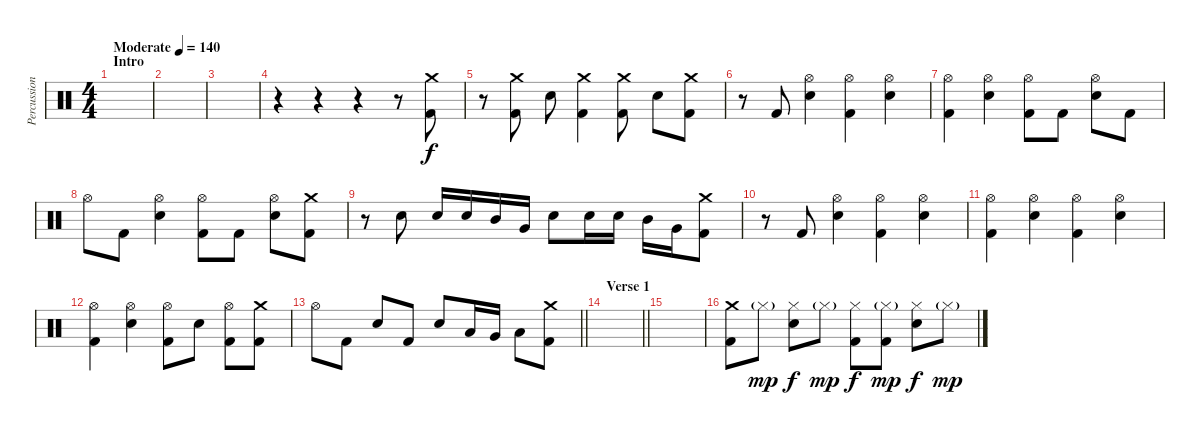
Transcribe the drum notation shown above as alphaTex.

\track ("Percussion" "Percussion") {instrument percussion}
\staff {score}
\articulation defaults
\ts (4 4)
\section ("" "Intro")
\tempo (140 "Moderate")
\clef neutral
\ks c
|
|
|
r.4 r.4 r.4 r.8 ("Crash medium (hit)" "Kick (hit) 2").8 |
r.8 ("Crash medium (hit)" "Kick (hit) 2").8 "Electric Snare (hit)".8 ("Crash medium (hit)" "Kick (hit) 2").4 ("Crash medium (hit)" "Kick (hit) 2").8 "Electric Snare (hit)".8 ("Crash medium (hit)" "Kick (hit) 2").8 |
r.8 "Kick (hit) 2".8 ("Hi-Hat (open)" "Electric Snare (hit)").4 ("Hi-Hat (open)" "Kick (hit) 2").4 ("Hi-Hat (open)" "Electric Snare (hit)").4 |
("Hi-Hat (open)" "Kick (hit) 2").4 ("Hi-Hat (open)" "Electric Snare (hit)").4 ("Hi-Hat (open)" "Kick (hit) 2").8 "Kick (hit) 2".8 ("Hi-Hat (open)" "Electric Snare (hit)").8 "Kick (hit) 2".8 |
"Hi-Hat (open)".8 "Kick (hit) 2".8 ("Hi-Hat (open)" "Electric Snare (hit)").4 ("Hi-Hat (open)" "Kick (hit) 2").8 "Kick (hit) 2".8 ("Hi-Hat (open)" "Electric Snare (hit)").8 ("Crash medium (hit)" "Kick (hit) 2").8 |
r.8 "Electric Snare (hit)".8 "Electric Snare (hit)".16 "Electric Snare (hit)".16 "Mid Tom (hit)".16 "Very Low Tom (hit)".16 "Electric Snare (hit)".8 "Electric Snare (hit)".16 "Electric Snare (hit)".16 "Mid Tom (hit)".16 "Very Low Tom (hit)".16 ("Crash medium (hit)" "Kick (hit) 2").8 |
r.8 "Kick (hit) 2".8 ("Hi-Hat (open)" "Electric Snare (hit)").4 ("Hi-Hat (open)" "Kick (hit) 2").4 ("Hi-Hat (open)" "Electric Snare (hit)").4 |
("Hi-Hat (open)" "Kick (hit) 2").4 ("Hi-Hat (open)" "Electric Snare (hit)").4 ("Hi-Hat (open)" "Kick (hit) 2").4 ("Hi-Hat (open)" "Electric Snare (hit)").4 |
("Hi-Hat (open)" "Kick (hit) 2").4 ("Hi-Hat (open)" "Electric Snare (hit)").4 ("Hi-Hat (open)" "Kick (hit) 2").8 "Electric Snare (hit)".8 ("Hi-Hat (open)" "Kick (hit) 2").8 ("Crash medium (hit)" "Kick (hit) 2").8 |
\barLineRight lightlight "Hi-Hat (open)".8 "Kick (hit) 2".8 "Electric Snare (hit)".8 "Kick (hit) 2".8 "Electric Snare (hit)".8 "Low Tom (hit)".16 "Very Low Tom (hit)".16 "Low Floor Tom (hit)".8
("Crash medium (hit)" "Kick (hit) 2").8 |
\section ("" "Verse 1")
\barLineRight lightlight
|
|
("Crash medium (hit)" "Kick (hit) 2").8 "Hi-Hat (closed)"{g}.8{dy mp} ("Hi-Hat (closed)" "Electric Snare (hit)").8{dy f} "Hi-Hat (closed)"{g}.8{dy mp} ("Hi-Hat (closed)" "Kick (hit) 2").8{dy f} ("Hi-Hat (closed)"{g} "Kick (hit) 2").8{dy mp} ("Hi-Hat (closed)" "Electric Snare (hit)").8{dy f} "Hi-Hat (closed)"{g}.8{dy mp}
